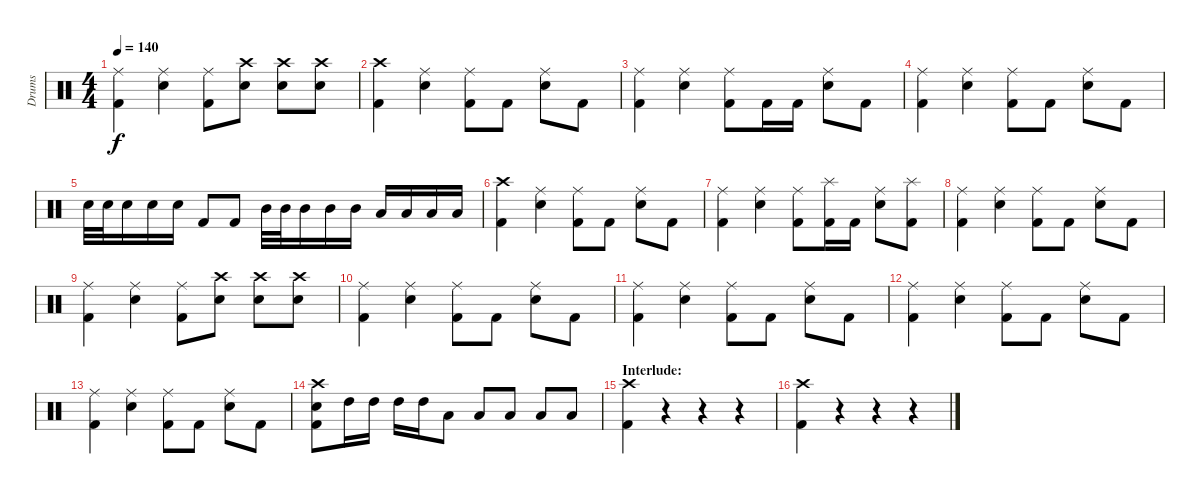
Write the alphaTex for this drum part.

\track ("Drums" "Drums") {instrument percussion}
\staff {score}
\articulation defaults
\ts (4 4)
\tempo 140
\clef neutral
\ks c
("Ride (middle)" "Kick (hit) 2").4{dy f} ("Ride (middle)" "Electric Snare (hit)").4 ("Ride (middle)" "Kick (hit) 2").8 ("Crash high (hit)" "Electric Snare (hit)").8 ("Crash high (hit)" "Electric Snare (hit)").8 ("Crash high (hit)" "Electric Snare (hit)").8 |
("Crash high (hit)" "Kick (hit) 2").4 ("Ride (middle)" "Electric Snare (hit)").4 ("Ride (middle)" "Kick (hit) 2").8 "Kick (hit) 2".8 ("Ride (middle)" "Electric Snare (hit)").8 "Kick (hit) 2".8 |
("Ride (middle)" "Kick (hit) 2").4 ("Ride (middle)" "Electric Snare (hit)").4 ("Ride (middle)" "Kick (hit) 2").8 "Kick (hit) 2".16 "Kick (hit) 2".16 ("Ride (middle)" "Electric Snare (hit)").8 "Kick (hit) 2".8 |
("Ride (middle)" "Kick (hit) 2").4 ("Ride (middle)" "Electric Snare (hit)").4 ("Ride (middle)" "Kick (hit) 2").8 "Kick (hit) 2".8 ("Ride (middle)" "Electric Snare (hit)").8 "Kick (hit) 2".8 |
"Electric Snare (hit)".32 "Electric Snare (hit)".32 "Electric Snare (hit)".16 "Electric Snare (hit)".16 "Electric Snare (hit)".16 "Kick (hit) 2".8 "Kick (hit) 2".8 "Mid Tom (hit)".32 "Mid Tom (hit)".32 "Mid Tom (hit)".16 "Mid Tom (hit)".16 "Mid Tom (hit)".16 "Low Tom (hit)".16 "Low Tom (hit)".16 "Low Tom (hit)".16 "Low Tom (hit)".16 |
("Crash high (hit)" "Kick (hit) 2").4 ("Ride (middle)" "Electric Snare (hit)").4 ("Ride (middle)" "Kick (hit) 2").8 "Kick (hit) 2".8 ("Ride (middle)" "Electric Snare (hit)").8 "Kick (hit) 2".8 |
("Ride (middle)" "Kick (hit) 2").4 ("Ride (middle)" "Electric Snare (hit)").4 ("Ride (middle)" "Kick (hit) 2").8 ("Splash (hit)" "Kick (hit) 2").16 "Kick (hit) 2".16 ("Ride (middle)" "Electric Snare (hit)").8 ("Splash (hit)" "Kick (hit) 2").8 |
("Ride (middle)" "Kick (hit) 2").4 ("Ride (middle)" "Electric Snare (hit)").4 ("Ride (middle)" "Kick (hit) 2").8 "Kick (hit) 2".8 ("Ride (middle)" "Electric Snare (hit)").8 "Kick (hit) 2".8 |
("Ride (middle)" "Kick (hit) 2").4 ("Ride (middle)" "Electric Snare (hit)").4 ("Ride (middle)" "Kick (hit) 2").8 ("Crash high (hit)" "Electric Snare (hit)").8 ("Crash high (hit)" "Electric Snare (hit)").8 ("Crash high (hit)" "Electric Snare (hit)").8 |
("Ride (middle)" "Kick (hit) 2").4 ("Ride (middle)" "Electric Snare (hit)").4 ("Ride (middle)" "Kick (hit) 2").8 "Kick (hit) 2".8 ("Ride (middle)" "Electric Snare (hit)").8 "Kick (hit) 2".8 |
("Ride (middle)" "Kick (hit) 2").4 ("Ride (middle)" "Electric Snare (hit)").4 ("Ride (middle)" "Kick (hit) 2").8 "Kick (hit) 2".8 ("Ride (middle)" "Electric Snare (hit)").8 "Kick (hit) 2".8 |
("Ride (middle)" "Kick (hit) 2").4 ("Ride (middle)" "Electric Snare (hit)").4 ("Ride (middle)" "Kick (hit) 2").8 "Kick (hit) 2".8 ("Ride (middle)" "Electric Snare (hit)").8 "Kick (hit) 2".8 |
("Ride (middle)" "Kick (hit) 2").4 ("Ride (middle)" "Electric Snare (hit)").4 ("Ride (middle)" "Kick (hit) 2").8 "Kick (hit) 2".8 ("Ride (middle)" "Electric Snare (hit)").8 "Kick (hit) 2".8 |
("Crash high (hit)" "Electric Snare (hit)" "Kick (hit) 2").8 "High Tom (hit)".16 "High Tom (hit)".16 "High Tom (hit)".16 "High Tom (hit)".16 "Low Tom (hit)".8 "Low Tom (hit)".8 "Low Tom (hit)".8 "Low Tom (hit)".8 "Low Tom (hit)".8 |
\section ("" "Interlude:")
("Crash high (hit)" "Kick (hit) 2").4 r.4 r.4 r.4 |
("Crash high (hit)" "Kick (hit) 2").4 r.4 r.4 r.4
